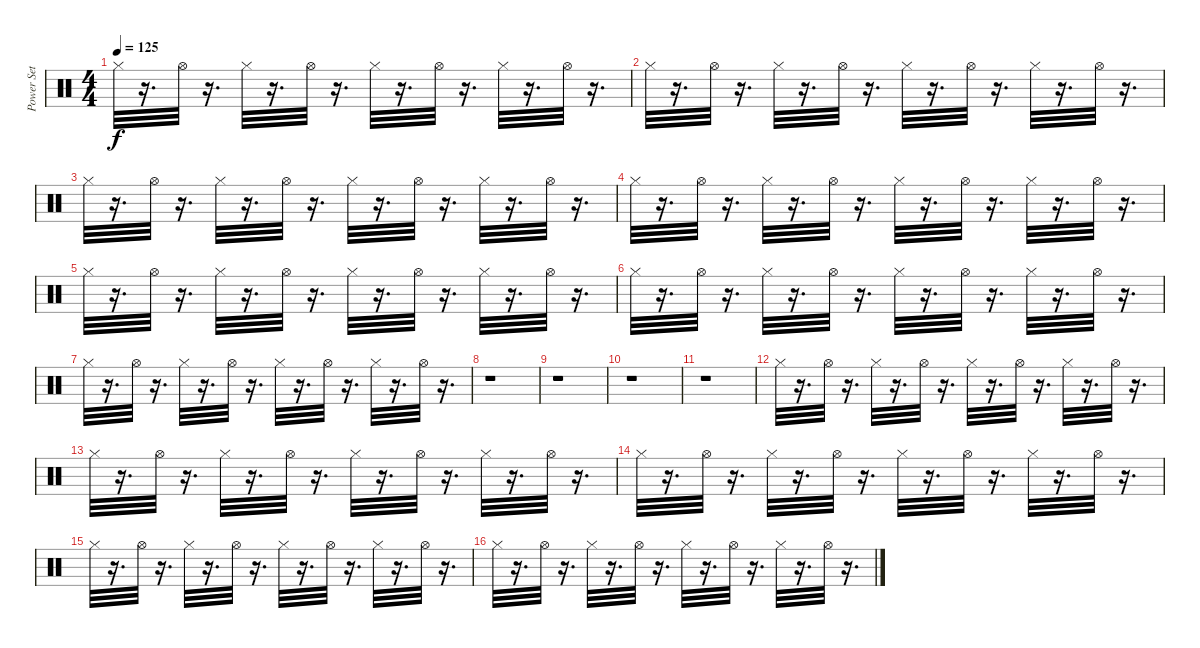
\track ("Power Set" "Power Set") {instrument percussion}
\staff {score}
\articulation defaults
\ts (4 4)
\tempo 125
\clef neutral
\ks c "Hi-Hat (closed)".32{dy f}
r.16{d} "Hi-Hat (open)".32 r.16{d} "Hi-Hat (closed)".32 r.16{d} "Hi-Hat (open)".32 r.16{d} "Hi-Hat (closed)".32 r.16{d} "Hi-Hat (open)".32 r.16{d} "Hi-Hat (closed)".32 r.16{d} "Hi-Hat (open)".32 r.16{d} |
"Hi-Hat (closed)".32 r.16{d} "Hi-Hat (open)".32 r.16{d} "Hi-Hat (closed)".32 r.16{d} "Hi-Hat (open)".32 r.16{d} "Hi-Hat (closed)".32 r.16{d} "Hi-Hat (open)".32 r.16{d} "Hi-Hat (closed)".32 r.16{d} "Hi-Hat (open)".32 r.16{d} |
"Hi-Hat (closed)".32 r.16{d} "Hi-Hat (open)".32 r.16{d} "Hi-Hat (closed)".32 r.16{d} "Hi-Hat (open)".32 r.16{d} "Hi-Hat (closed)".32 r.16{d} "Hi-Hat (open)".32 r.16{d} "Hi-Hat (closed)".32 r.16{d} "Hi-Hat (open)".32 r.16{d} |
"Hi-Hat (closed)".32 r.16{d} "Hi-Hat (open)".32 r.16{d} "Hi-Hat (closed)".32 r.16{d} "Hi-Hat (open)".32 r.16{d} "Hi-Hat (closed)".32 r.16{d} "Hi-Hat (open)".32 r.16{d} "Hi-Hat (closed)".32 r.16{d} "Hi-Hat (open)".32 r.16{d} |
"Hi-Hat (closed)".32 r.16{d} "Hi-Hat (open)".32 r.16{d} "Hi-Hat (closed)".32 r.16{d} "Hi-Hat (open)".32 r.16{d} "Hi-Hat (closed)".32 r.16{d} "Hi-Hat (open)".32 r.16{d} "Hi-Hat (closed)".32 r.16{d} "Hi-Hat (open)".32 r.16{d} |
"Hi-Hat (closed)".32 r.16{d} "Hi-Hat (open)".32 r.16{d} "Hi-Hat (closed)".32 r.16{d} "Hi-Hat (open)".32 r.16{d} "Hi-Hat (closed)".32 r.16{d} "Hi-Hat (open)".32 r.16{d} "Hi-Hat (closed)".32 r.16{d} "Hi-Hat (open)".32 r.16{d} |
"Hi-Hat (closed)".32 r.16{d} "Hi-Hat (open)".32 r.16{d} "Hi-Hat (closed)".32 r.16{d} "Hi-Hat (open)".32 r.16{d} "Hi-Hat (closed)".32 r.16{d} "Hi-Hat (open)".32 r.16{d} "Hi-Hat (closed)".32 r.16{d} "Hi-Hat (open)".32 r.16{d} |
r.1 |
r.1 |
r.1 |
r.1 |
"Hi-Hat (closed)".32 r.16{d} "Hi-Hat (open)".32 r.16{d} "Hi-Hat (closed)".32 r.16{d} "Hi-Hat (open)".32 r.16{d} "Hi-Hat (closed)".32 r.16{d} "Hi-Hat (open)".32 r.16{d} "Hi-Hat (closed)".32 r.16{d} "Hi-Hat (open)".32 r.16{d} |
"Hi-Hat (closed)".32 r.16{d} "Hi-Hat (open)".32 r.16{d} "Hi-Hat (closed)".32 r.16{d} "Hi-Hat (open)".32 r.16{d} "Hi-Hat (closed)".32 r.16{d} "Hi-Hat (open)".32 r.16{d} "Hi-Hat (closed)".32 r.16{d} "Hi-Hat (open)".32 r.16{d} |
"Hi-Hat (closed)".32 r.16{d} "Hi-Hat (open)".32 r.16{d} "Hi-Hat (closed)".32 r.16{d} "Hi-Hat (open)".32 r.16{d} "Hi-Hat (closed)".32 r.16{d} "Hi-Hat (open)".32 r.16{d} "Hi-Hat (closed)".32 r.16{d} "Hi-Hat (open)".32 r.16{d} |
"Hi-Hat (closed)".32 r.16{d} "Hi-Hat (open)".32 r.16{d} "Hi-Hat (closed)".32 r.16{d} "Hi-Hat (open)".32 r.16{d} "Hi-Hat (closed)".32 r.16{d} "Hi-Hat (open)".32 r.16{d} "Hi-Hat (closed)".32 r.16{d} "Hi-Hat (open)".32 r.16{d} |
"Hi-Hat (closed)".32 r.16{d} "Hi-Hat (open)".32 r.16{d} "Hi-Hat (closed)".32 r.16{d} "Hi-Hat (open)".32 r.16{d} "Hi-Hat (closed)".32 r.16{d} "Hi-Hat (open)".32 r.16{d} "Hi-Hat (closed)".32 r.16{d} "Hi-Hat (open)".32 r.16{d}
